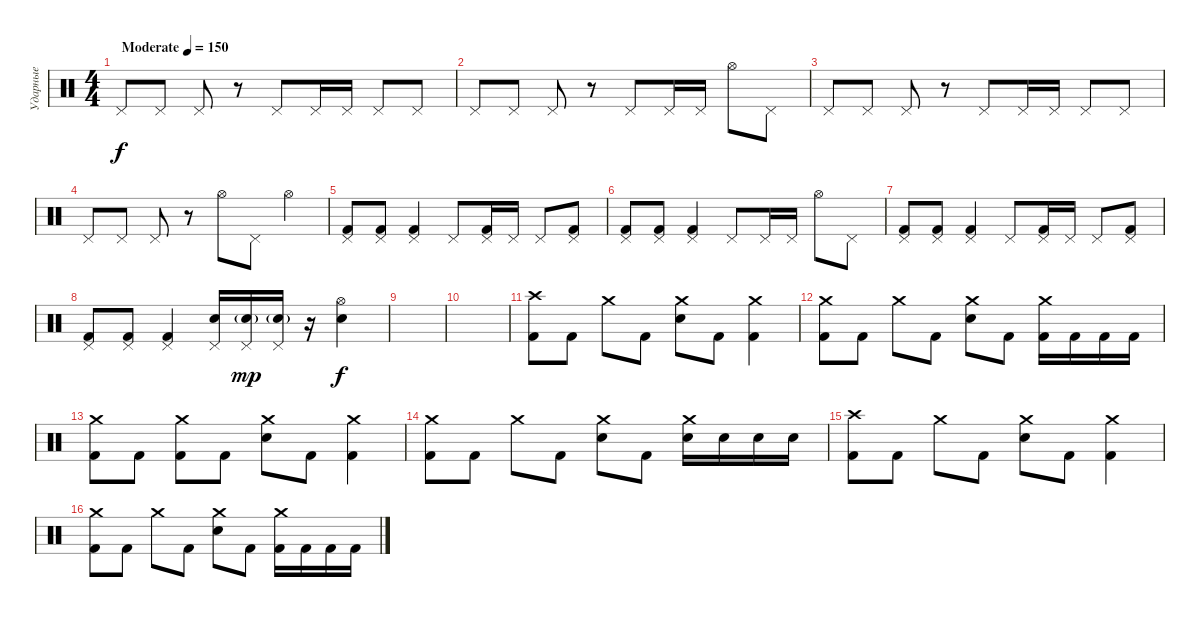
\track ("Ударные" "Ударные") {instrument percussion}
\staff {score}
\articulation defaults
\ts (4 4)
\tempo (150 "Moderate")
\clef neutral
\ks c "Pedal Hi-Hat (hit)".8{dy f} "Pedal Hi-Hat (hit)".8 "Pedal Hi-Hat (hit)".8
r.8 "Pedal Hi-Hat (hit)".8 "Pedal Hi-Hat (hit)".16 "Pedal Hi-Hat (hit)".16 "Pedal Hi-Hat (hit)".8 "Pedal Hi-Hat (hit)".8 |
"Pedal Hi-Hat (hit)".8 "Pedal Hi-Hat (hit)".8 "Pedal Hi-Hat (hit)".8 r.8 "Pedal Hi-Hat (hit)".8 "Pedal Hi-Hat (hit)".16 "Pedal Hi-Hat (hit)".16 "Hi-Hat (open)".8 "Pedal Hi-Hat (hit)".8 |
"Pedal Hi-Hat (hit)".8 "Pedal Hi-Hat (hit)".8 "Pedal Hi-Hat (hit)".8 r.8 "Pedal Hi-Hat (hit)".8 "Pedal Hi-Hat (hit)".16 "Pedal Hi-Hat (hit)".16 "Pedal Hi-Hat (hit)".8 "Pedal Hi-Hat (hit)".8 |
"Pedal Hi-Hat (hit)".8 "Pedal Hi-Hat (hit)".8 "Pedal Hi-Hat (hit)".8 r.8 "Hi-Hat (open)".8 "Pedal Hi-Hat (hit)".8 "Hi-Hat (open)".4 |
("Pedal Hi-Hat (hit)" "Kick (hit) 2").8 ("Pedal Hi-Hat (hit)" "Kick (hit) 2").8 ("Pedal Hi-Hat (hit)" "Kick (hit) 2").4 "Pedal Hi-Hat (hit)".8 ("Pedal Hi-Hat (hit)" "Kick (hit) 2").16 "Pedal Hi-Hat (hit)".16 "Pedal Hi-Hat (hit)".8 ("Pedal Hi-Hat (hit)" "Kick (hit) 2").8 |
("Pedal Hi-Hat (hit)" "Kick (hit) 2").8 ("Pedal Hi-Hat (hit)" "Kick (hit) 2").8 ("Pedal Hi-Hat (hit)" "Kick (hit) 2").4 "Pedal Hi-Hat (hit)".8 "Pedal Hi-Hat (hit)".16 "Pedal Hi-Hat (hit)".16 "Hi-Hat (open)".8 "Pedal Hi-Hat (hit)".8 |
("Pedal Hi-Hat (hit)" "Kick (hit) 2").8 ("Pedal Hi-Hat (hit)" "Kick (hit) 2").8 ("Pedal Hi-Hat (hit)" "Kick (hit) 2").4 "Pedal Hi-Hat (hit)".8 ("Pedal Hi-Hat (hit)" "Kick (hit) 2").16 "Pedal Hi-Hat (hit)".16 "Pedal Hi-Hat (hit)".8 ("Pedal Hi-Hat (hit)" "Kick (hit) 2").8 |
("Pedal Hi-Hat (hit)" "Kick (hit) 2").8 ("Pedal Hi-Hat (hit)" "Kick (hit) 2").8 ("Pedal Hi-Hat (hit)" "Kick (hit) 2").4 ("Pedal Hi-Hat (hit)" "Electric Snare (hit)").16 ("Pedal Hi-Hat (hit)" "Electric Snare (hit)"{g}).16{dy mp} ("Pedal Hi-Hat (hit)" "Electric Snare (hit)"{g}).16 r.16 ("Hi-Hat (open)" "Electric Snare (hit)").4{dy f} |
|
|
("Crash high (hit)" "Kick (hit) 2").8 "Kick (hit) 2".8 "Crash medium (hit)".8 "Kick (hit) 2".8 ("Crash medium (hit)" "Electric Snare (hit)").8 "Kick (hit) 2".8 ("Crash medium (hit)" "Kick (hit) 2").4 |
("Crash medium (hit)" "Kick (hit) 2").8 "Kick (hit) 2".8 "Crash medium (hit)".8 "Kick (hit) 2".8 ("Crash medium (hit)" "Electric Snare (hit)").8 "Kick (hit) 2".8 ("Crash medium (hit)" "Kick (hit) 2").16 "Kick (hit) 2".16 "Kick (hit) 2".16 "Kick (hit) 2".16 |
("Crash medium (hit)" "Kick (hit) 2").8 "Kick (hit) 2".8 ("Crash medium (hit)" "Kick (hit) 2").8 "Kick (hit) 2".8 ("Crash medium (hit)" "Electric Snare (hit)").8 "Kick (hit) 2".8 ("Crash medium (hit)" "Kick (hit) 2").4 |
("Crash medium (hit)" "Kick (hit) 2").8 "Kick (hit) 2".8 "Crash medium (hit)".8 "Kick (hit) 2".8 ("Crash medium (hit)" "Electric Snare (hit)").8 "Kick (hit) 2".8 ("Crash medium (hit)" "Electric Snare (hit)").16 "Electric Snare (hit)".16 "Electric Snare (hit)".16 "Electric Snare (hit)".16 |
("Crash high (hit)" "Kick (hit) 2").8 "Kick (hit) 2".8 "Crash medium (hit)".8 "Kick (hit) 2".8 ("Crash medium (hit)" "Electric Snare (hit)").8 "Kick (hit) 2".8 ("Crash medium (hit)" "Kick (hit) 2").4 |
("Crash medium (hit)" "Kick (hit) 2").8 "Kick (hit) 2".8 "Crash medium (hit)".8 "Kick (hit) 2".8 ("Crash medium (hit)" "Electric Snare (hit)").8 "Kick (hit) 2".8 ("Crash medium (hit)" "Kick (hit) 2").16 "Kick (hit) 2".16 "Kick (hit) 2".16 "Kick (hit) 2".16
